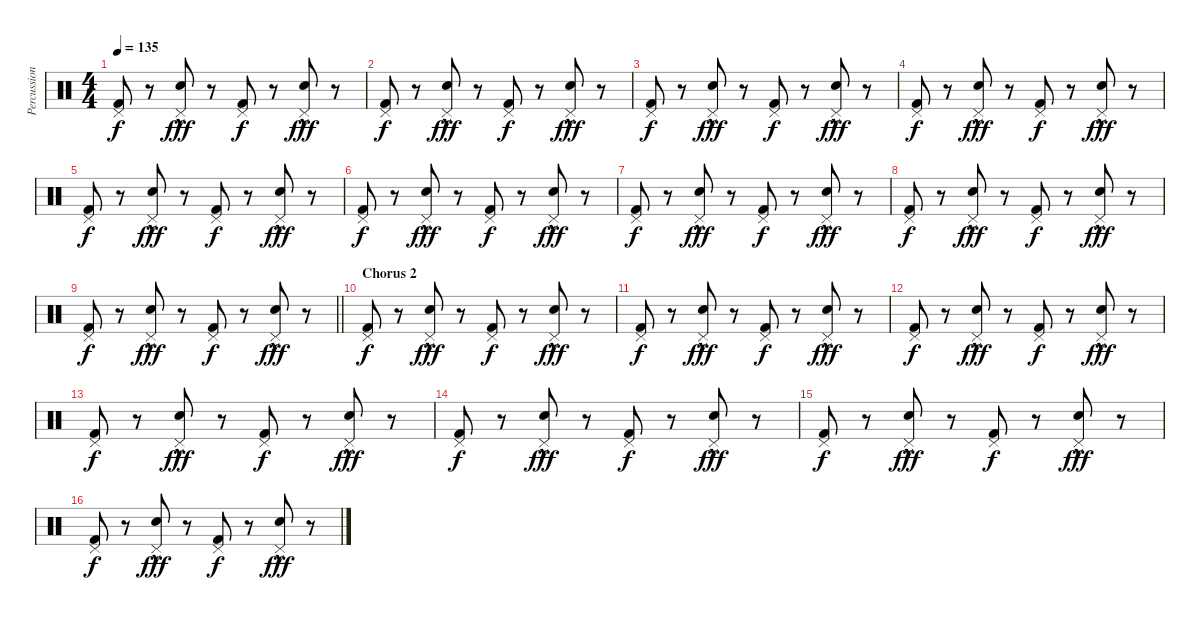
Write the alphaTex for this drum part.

\track ("Percussion" "Percussion") {instrument percussion}
\staff {score}
\articulation defaults
\ts (4 4)
\tempo 135
\clef neutral
\ks c
("Kick (hit) 2" "Pedal Hi-Hat (hit)").8{dy f} r.8 ("Snare (hit) 2"{hac} "Pedal Hi-Hat (hit)").8{dy fff} r.8 ("Kick (hit) 2" "Pedal Hi-Hat (hit)").8{dy f} r.8 ("Snare (hit) 2"{hac} "Pedal Hi-Hat (hit)").8{dy fff} r.8 |
("Kick (hit) 2" "Pedal Hi-Hat (hit)").8{dy f} r.8 ("Snare (hit) 2"{hac} "Pedal Hi-Hat (hit)").8{dy fff} r.8 ("Kick (hit) 2" "Pedal Hi-Hat (hit)").8{dy f} r.8 ("Snare (hit) 2"{hac} "Pedal Hi-Hat (hit)").8{dy fff} r.8 |
("Kick (hit) 2" "Pedal Hi-Hat (hit)").8{dy f} r.8 ("Snare (hit) 2"{hac} "Pedal Hi-Hat (hit)").8{dy fff} r.8 ("Kick (hit) 2" "Pedal Hi-Hat (hit)").8{dy f} r.8 ("Snare (hit) 2"{hac} "Pedal Hi-Hat (hit)").8{dy fff} r.8 |
("Kick (hit) 2" "Pedal Hi-Hat (hit)").8{dy f} r.8 ("Snare (hit) 2"{hac} "Pedal Hi-Hat (hit)").8{dy fff} r.8 ("Kick (hit) 2" "Pedal Hi-Hat (hit)").8{dy f} r.8 ("Snare (hit) 2"{hac} "Pedal Hi-Hat (hit)").8{dy fff} r.8 |
("Kick (hit) 2" "Pedal Hi-Hat (hit)").8{dy f} r.8 ("Snare (hit) 2"{hac} "Pedal Hi-Hat (hit)").8{dy fff} r.8 ("Kick (hit) 2" "Pedal Hi-Hat (hit)").8{dy f} r.8 ("Snare (hit) 2"{hac} "Pedal Hi-Hat (hit)").8{dy fff} r.8 |
("Kick (hit) 2" "Pedal Hi-Hat (hit)").8{dy f} r.8 ("Snare (hit) 2"{hac} "Pedal Hi-Hat (hit)").8{dy fff} r.8 ("Kick (hit) 2" "Pedal Hi-Hat (hit)").8{dy f} r.8 ("Snare (hit) 2"{hac} "Pedal Hi-Hat (hit)").8{dy fff} r.8 |
("Kick (hit) 2" "Pedal Hi-Hat (hit)").8{dy f} r.8 ("Snare (hit) 2"{hac} "Pedal Hi-Hat (hit)").8{dy fff} r.8 ("Kick (hit) 2" "Pedal Hi-Hat (hit)").8{dy f} r.8 ("Snare (hit) 2"{hac} "Pedal Hi-Hat (hit)").8{dy fff} r.8 |
("Kick (hit) 2" "Pedal Hi-Hat (hit)").8{dy f} r.8 ("Snare (hit) 2"{hac} "Pedal Hi-Hat (hit)").8{dy fff} r.8 ("Kick (hit) 2" "Pedal Hi-Hat (hit)").8{dy f} r.8 ("Snare (hit) 2"{hac} "Pedal Hi-Hat (hit)").8{dy fff} r.8 |
\barLineRight lightlight
("Kick (hit) 2" "Pedal Hi-Hat (hit)").8{dy f} r.8 ("Snare (hit) 2"{hac} "Pedal Hi-Hat (hit)").8{dy fff} r.8 ("Kick (hit) 2" "Pedal Hi-Hat (hit)").8{dy f} r.8 ("Snare (hit) 2"{hac} "Pedal Hi-Hat (hit)").8{dy fff} r.8 |
\section ("" "Chorus 2")
("Kick (hit) 2" "Pedal Hi-Hat (hit)").8{dy f} r.8 ("Snare (hit) 2"{hac} "Pedal Hi-Hat (hit)").8{dy fff} r.8 ("Kick (hit) 2" "Pedal Hi-Hat (hit)").8{dy f} r.8 ("Snare (hit) 2"{hac} "Pedal Hi-Hat (hit)").8{dy fff} r.8 |
("Kick (hit) 2" "Pedal Hi-Hat (hit)").8{dy f} r.8 ("Snare (hit) 2"{hac} "Pedal Hi-Hat (hit)").8{dy fff} r.8 ("Kick (hit) 2" "Pedal Hi-Hat (hit)").8{dy f} r.8 ("Snare (hit) 2"{hac} "Pedal Hi-Hat (hit)").8{dy fff} r.8 |
("Kick (hit) 2" "Pedal Hi-Hat (hit)").8{dy f} r.8 ("Snare (hit) 2"{hac} "Pedal Hi-Hat (hit)").8{dy fff} r.8 ("Kick (hit) 2" "Pedal Hi-Hat (hit)").8{dy f} r.8 ("Snare (hit) 2"{hac} "Pedal Hi-Hat (hit)").8{dy fff} r.8 |
("Kick (hit) 2" "Pedal Hi-Hat (hit)").8{dy f} r.8 ("Snare (hit) 2"{hac} "Pedal Hi-Hat (hit)").8{dy fff} r.8 ("Kick (hit) 2" "Pedal Hi-Hat (hit)").8{dy f} r.8 ("Snare (hit) 2"{hac} "Pedal Hi-Hat (hit)").8{dy fff} r.8 |
("Kick (hit) 2" "Pedal Hi-Hat (hit)").8{dy f} r.8 ("Snare (hit) 2"{hac} "Pedal Hi-Hat (hit)").8{dy fff} r.8 ("Kick (hit) 2" "Pedal Hi-Hat (hit)").8{dy f} r.8 ("Snare (hit) 2"{hac} "Pedal Hi-Hat (hit)").8{dy fff} r.8 |
("Kick (hit) 2" "Pedal Hi-Hat (hit)").8{dy f} r.8 ("Snare (hit) 2"{hac} "Pedal Hi-Hat (hit)").8{dy fff} r.8 ("Kick (hit) 2" "Pedal Hi-Hat (hit)").8{dy f} r.8 ("Snare (hit) 2"{hac} "Pedal Hi-Hat (hit)").8{dy fff} r.8 |
("Kick (hit) 2" "Pedal Hi-Hat (hit)").8{dy f} r.8 ("Snare (hit) 2"{hac} "Pedal Hi-Hat (hit)").8{dy fff} r.8 ("Kick (hit) 2" "Pedal Hi-Hat (hit)").8{dy f} r.8 ("Snare (hit) 2"{hac} "Pedal Hi-Hat (hit)").8{dy fff} r.8
